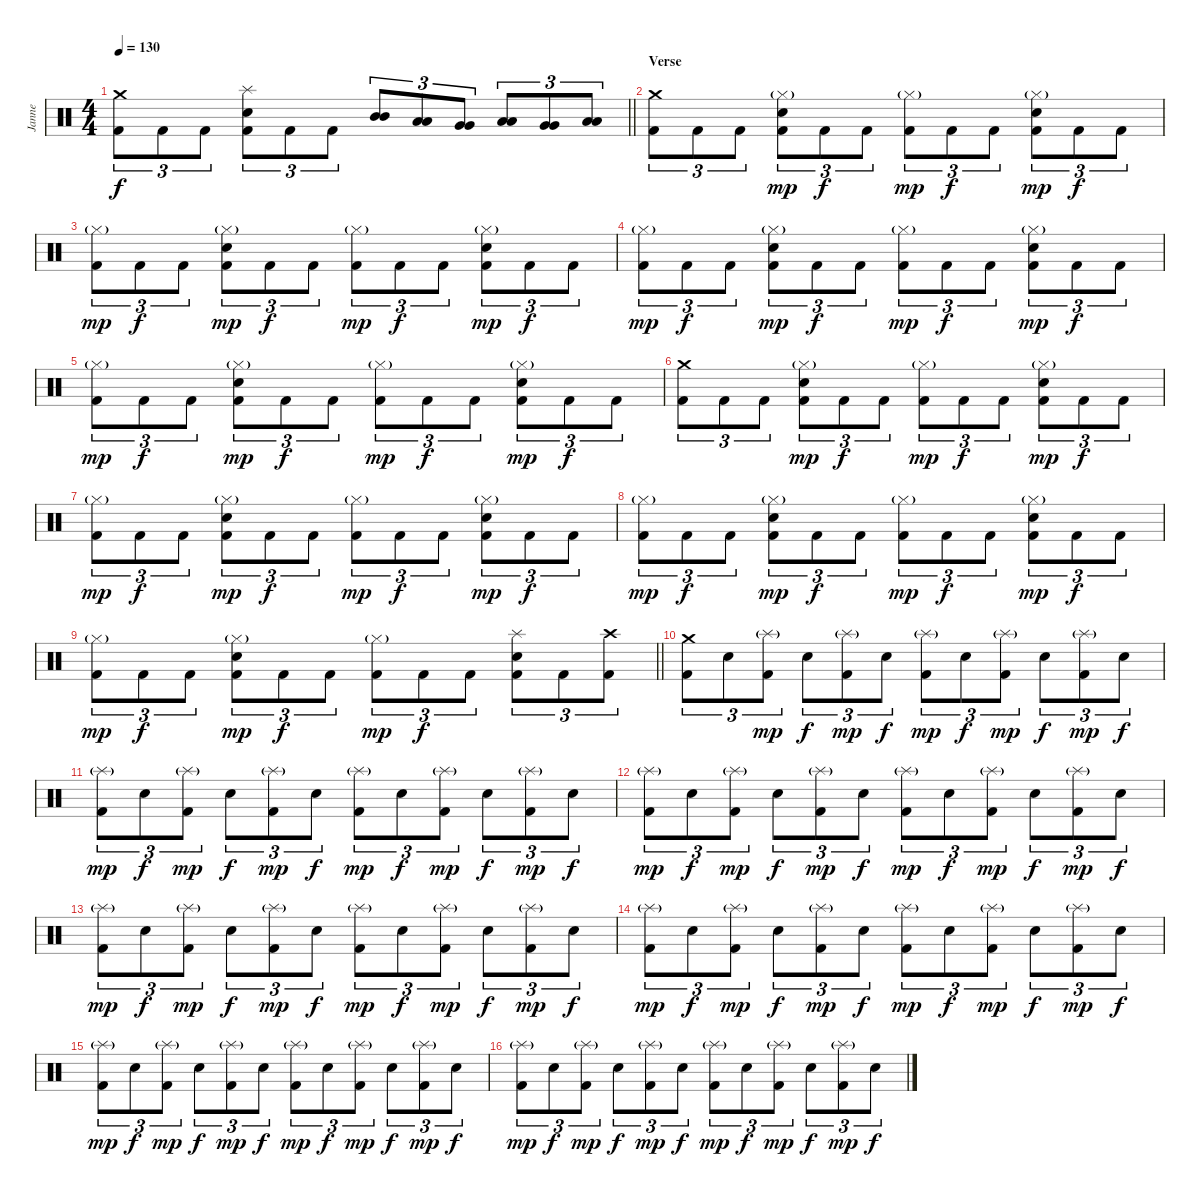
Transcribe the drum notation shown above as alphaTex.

\track ("Janne" "Janne") {instrument percussion}
\staff {score}
\articulation defaults
\ts (4 4)
\tempo 130
\clef neutral
\barLineRight lightlight
\ks c
("Kick (hit) 2" "Crash medium (hit)").8{tu (3 2) dy f} "Kick (hit) 2".8{tu (3 2)} "Kick (hit) 2".8{tu (3 2)} ("Kick (hit) 2" "Snare (hit) 2" "Splash (hit)").8{tu (3 2)} "Kick (hit) 2".8{tu (3 2)} "Kick (hit) 2".8{tu (3 2)} ("Mid Tom (hit)" "Mid Tom (hit)").8{tu (3 2)} ("Low Tom (hit)" "Low Tom (hit)").8{tu (3 2)} ("Very Low Tom (hit)" "Very Low Tom (hit)").8{tu (3 2)} ("Low Tom (hit)" "Low Tom (hit)").8{tu (3 2)} ("Very Low Tom (hit)" "Very Low Tom (hit)").8{tu (3 2)} ("Low Floor Tom (hit)" "Low Floor Tom (hit)").8{tu (3 2)} |
\section ("" "Verse")
("Kick (hit) 2" "Crash medium (hit)").8{tu (3 2)} "Kick (hit) 2".8{tu (3 2)} "Kick (hit) 2".8{tu (3 2)} ("Kick (hit) 2" "Snare (hit) 2" "Hi-Hat (closed)"{g}).8{tu (3 2) dy mp} "Kick (hit) 2".8{tu (3 2) dy f} "Kick (hit) 2".8{tu (3 2)} ("Kick (hit) 2" "Hi-Hat (closed)"{g}).8{tu (3 2) dy mp} "Kick (hit) 2".8{tu (3 2) dy f} "Kick (hit) 2".8{tu (3 2)} ("Kick (hit) 2" "Snare (hit) 2" "Hi-Hat (closed)"{g}).8{tu (3 2) dy mp} "Kick (hit) 2".8{tu (3 2) dy f} "Kick (hit) 2".8{tu (3 2)} |
("Kick (hit) 2" "Hi-Hat (closed)"{g}).8{tu (3 2) dy mp} "Kick (hit) 2".8{tu (3 2) dy f} "Kick (hit) 2".8{tu (3 2)} ("Kick (hit) 2" "Snare (hit) 2" "Hi-Hat (closed)"{g}).8{tu (3 2) dy mp} "Kick (hit) 2".8{tu (3 2) dy f} "Kick (hit) 2".8{tu (3 2)} ("Kick (hit) 2" "Hi-Hat (closed)"{g}).8{tu (3 2) dy mp} "Kick (hit) 2".8{tu (3 2) dy f} "Kick (hit) 2".8{tu (3 2)} ("Kick (hit) 2" "Snare (hit) 2" "Hi-Hat (closed)"{g}).8{tu (3 2) dy mp} "Kick (hit) 2".8{tu (3 2) dy f} "Kick (hit) 2".8{tu (3 2)} |
("Kick (hit) 2" "Hi-Hat (closed)"{g}).8{tu (3 2) dy mp} "Kick (hit) 2".8{tu (3 2) dy f} "Kick (hit) 2".8{tu (3 2)} ("Kick (hit) 2" "Snare (hit) 2" "Hi-Hat (closed)"{g}).8{tu (3 2) dy mp} "Kick (hit) 2".8{tu (3 2) dy f} "Kick (hit) 2".8{tu (3 2)} ("Kick (hit) 2" "Hi-Hat (closed)"{g}).8{tu (3 2) dy mp} "Kick (hit) 2".8{tu (3 2) dy f} "Kick (hit) 2".8{tu (3 2)} ("Kick (hit) 2" "Snare (hit) 2" "Hi-Hat (closed)"{g}).8{tu (3 2) dy mp} "Kick (hit) 2".8{tu (3 2) dy f} "Kick (hit) 2".8{tu (3 2)} |
("Kick (hit) 2" "Hi-Hat (closed)"{g}).8{tu (3 2) dy mp} "Kick (hit) 2".8{tu (3 2) dy f} "Kick (hit) 2".8{tu (3 2)} ("Kick (hit) 2" "Snare (hit) 2" "Hi-Hat (closed)"{g}).8{tu (3 2) dy mp} "Kick (hit) 2".8{tu (3 2) dy f} "Kick (hit) 2".8{tu (3 2)} ("Kick (hit) 2" "Hi-Hat (closed)"{g}).8{tu (3 2) dy mp} "Kick (hit) 2".8{tu (3 2) dy f} "Kick (hit) 2".8{tu (3 2)} ("Kick (hit) 2" "Snare (hit) 2" "Hi-Hat (closed)"{g}).8{tu (3 2) dy mp} "Kick (hit) 2".8{tu (3 2) dy f} "Kick (hit) 2".8{tu (3 2)} |
("Kick (hit) 2" "Crash medium (hit)").8{tu (3 2)} "Kick (hit) 2".8{tu (3 2)} "Kick (hit) 2".8{tu (3 2)} ("Kick (hit) 2" "Snare (hit) 2" "Hi-Hat (closed)"{g}).8{tu (3 2) dy mp} "Kick (hit) 2".8{tu (3 2) dy f} "Kick (hit) 2".8{tu (3 2)} ("Kick (hit) 2" "Hi-Hat (closed)"{g}).8{tu (3 2) dy mp} "Kick (hit) 2".8{tu (3 2) dy f} "Kick (hit) 2".8{tu (3 2)} ("Kick (hit) 2" "Snare (hit) 2" "Hi-Hat (closed)"{g}).8{tu (3 2) dy mp} "Kick (hit) 2".8{tu (3 2) dy f} "Kick (hit) 2".8{tu (3 2)} |
("Kick (hit) 2" "Hi-Hat (closed)"{g}).8{tu (3 2) dy mp} "Kick (hit) 2".8{tu (3 2) dy f} "Kick (hit) 2".8{tu (3 2)} ("Kick (hit) 2" "Snare (hit) 2" "Hi-Hat (closed)"{g}).8{tu (3 2) dy mp} "Kick (hit) 2".8{tu (3 2) dy f} "Kick (hit) 2".8{tu (3 2)} ("Kick (hit) 2" "Hi-Hat (closed)"{g}).8{tu (3 2) dy mp} "Kick (hit) 2".8{tu (3 2) dy f} "Kick (hit) 2".8{tu (3 2)} ("Kick (hit) 2" "Snare (hit) 2" "Hi-Hat (closed)"{g}).8{tu (3 2) dy mp} "Kick (hit) 2".8{tu (3 2) dy f} "Kick (hit) 2".8{tu (3 2)} |
("Kick (hit) 2" "Hi-Hat (closed)"{g}).8{tu (3 2) dy mp} "Kick (hit) 2".8{tu (3 2) dy f} "Kick (hit) 2".8{tu (3 2)} ("Kick (hit) 2" "Snare (hit) 2" "Hi-Hat (closed)"{g}).8{tu (3 2) dy mp} "Kick (hit) 2".8{tu (3 2) dy f} "Kick (hit) 2".8{tu (3 2)} ("Kick (hit) 2" "Hi-Hat (closed)"{g}).8{tu (3 2) dy mp} "Kick (hit) 2".8{tu (3 2) dy f} "Kick (hit) 2".8{tu (3 2)} ("Kick (hit) 2" "Snare (hit) 2" "Hi-Hat (closed)"{g}).8{tu (3 2) dy mp} "Kick (hit) 2".8{tu (3 2) dy f} "Kick (hit) 2".8{tu (3 2)} |
\barLineRight lightlight
("Kick (hit) 2" "Hi-Hat (closed)"{g}).8{tu (3 2) dy mp} "Kick (hit) 2".8{tu (3 2) dy f} "Kick (hit) 2".8{tu (3 2)} ("Kick (hit) 2" "Snare (hit) 2" "Hi-Hat (closed)"{g}).8{tu (3 2) dy mp} "Kick (hit) 2".8{tu (3 2) dy f} "Kick (hit) 2".8{tu (3 2)} ("Kick (hit) 2" "Hi-Hat (closed)"{g}).8{tu (3 2) dy mp} "Kick (hit) 2".8{tu (3 2) dy f} "Kick (hit) 2".8{tu (3 2)} ("Kick (hit) 2" "Snare (hit) 2" "Splash (hit)").8{tu (3 2)} "Kick (hit) 2".8{tu (3 2)} ("Kick (hit) 2" "Crash high (hit)").8{tu (3 2)} |
\section ("" "")
("Kick (hit) 2" "Crash medium (hit)").8{tu (3 2)} "Snare (hit) 2".8{tu (3 2)} ("Kick (hit) 2" "Splash (hit)"{g}).8{tu (3 2) dy mp} "Snare (hit) 2".8{tu (3 2) dy f} ("Kick (hit) 2" "Splash (hit)"{g}).8{tu (3 2) dy mp} "Snare (hit) 2".8{tu (3 2) dy f} ("Kick (hit) 2" "Splash (hit)"{g}).8{tu (3 2) dy mp} "Snare (hit) 2".8{tu (3 2) dy f} ("Kick (hit) 2" "Splash (hit)"{g}).8{tu (3 2) dy mp} "Snare (hit) 2".8{tu (3 2) dy f} ("Kick (hit) 2" "Splash (hit)"{g}).8{tu (3 2) dy mp} "Snare (hit) 2".8{tu (3 2) dy f} |
("Kick (hit) 2" "Splash (hit)"{g}).8{tu (3 2) dy mp} "Snare (hit) 2".8{tu (3 2) dy f} ("Kick (hit) 2" "Splash (hit)"{g}).8{tu (3 2) dy mp} "Snare (hit) 2".8{tu (3 2) dy f} ("Kick (hit) 2" "Splash (hit)"{g}).8{tu (3 2) dy mp} "Snare (hit) 2".8{tu (3 2) dy f} ("Kick (hit) 2" "Splash (hit)"{g}).8{tu (3 2) dy mp} "Snare (hit) 2".8{tu (3 2) dy f} ("Kick (hit) 2" "Splash (hit)"{g}).8{tu (3 2) dy mp} "Snare (hit) 2".8{tu (3 2) dy f} ("Kick (hit) 2" "Splash (hit)"{g}).8{tu (3 2) dy mp} "Snare (hit) 2".8{tu (3 2) dy f} |
("Kick (hit) 2" "Splash (hit)"{g}).8{tu (3 2) dy mp} "Snare (hit) 2".8{tu (3 2) dy f} ("Kick (hit) 2" "Splash (hit)"{g}).8{tu (3 2) dy mp} "Snare (hit) 2".8{tu (3 2) dy f} ("Kick (hit) 2" "Splash (hit)"{g}).8{tu (3 2) dy mp} "Snare (hit) 2".8{tu (3 2) dy f} ("Kick (hit) 2" "Splash (hit)"{g}).8{tu (3 2) dy mp} "Snare (hit) 2".8{tu (3 2) dy f} ("Kick (hit) 2" "Splash (hit)"{g}).8{tu (3 2) dy mp} "Snare (hit) 2".8{tu (3 2) dy f} ("Kick (hit) 2" "Splash (hit)"{g}).8{tu (3 2) dy mp} "Snare (hit) 2".8{tu (3 2) dy f} |
("Kick (hit) 2" "Splash (hit)"{g}).8{tu (3 2) dy mp} "Snare (hit) 2".8{tu (3 2) dy f} ("Kick (hit) 2" "Splash (hit)"{g}).8{tu (3 2) dy mp} "Snare (hit) 2".8{tu (3 2) dy f} ("Kick (hit) 2" "Splash (hit)"{g}).8{tu (3 2) dy mp} "Snare (hit) 2".8{tu (3 2) dy f} ("Kick (hit) 2" "Splash (hit)"{g}).8{tu (3 2) dy mp} "Snare (hit) 2".8{tu (3 2) dy f} ("Kick (hit) 2" "Splash (hit)"{g}).8{tu (3 2) dy mp} "Snare (hit) 2".8{tu (3 2) dy f} ("Kick (hit) 2" "Splash (hit)"{g}).8{tu (3 2) dy mp} "Snare (hit) 2".8{tu (3 2) dy f} |
("Kick (hit) 2" "Splash (hit)"{g}).8{tu (3 2) dy mp} "Snare (hit) 2".8{tu (3 2) dy f} ("Kick (hit) 2" "Splash (hit)"{g}).8{tu (3 2) dy mp} "Snare (hit) 2".8{tu (3 2) dy f} ("Kick (hit) 2" "Splash (hit)"{g}).8{tu (3 2) dy mp} "Snare (hit) 2".8{tu (3 2) dy f} ("Kick (hit) 2" "Splash (hit)"{g}).8{tu (3 2) dy mp} "Snare (hit) 2".8{tu (3 2) dy f} ("Kick (hit) 2" "Splash (hit)"{g}).8{tu (3 2) dy mp} "Snare (hit) 2".8{tu (3 2) dy f} ("Kick (hit) 2" "Splash (hit)"{g}).8{tu (3 2) dy mp} "Snare (hit) 2".8{tu (3 2) dy f} |
("Kick (hit) 2" "Splash (hit)"{g}).8{tu (3 2) dy mp} "Snare (hit) 2".8{tu (3 2) dy f} ("Kick (hit) 2" "Splash (hit)"{g}).8{tu (3 2) dy mp} "Snare (hit) 2".8{tu (3 2) dy f} ("Kick (hit) 2" "Splash (hit)"{g}).8{tu (3 2) dy mp} "Snare (hit) 2".8{tu (3 2) dy f} ("Kick (hit) 2" "Splash (hit)"{g}).8{tu (3 2) dy mp} "Snare (hit) 2".8{tu (3 2) dy f} ("Kick (hit) 2" "Splash (hit)"{g}).8{tu (3 2) dy mp} "Snare (hit) 2".8{tu (3 2) dy f} ("Kick (hit) 2" "Splash (hit)"{g}).8{tu (3 2) dy mp} "Snare (hit) 2".8{tu (3 2) dy f} |
("Kick (hit) 2" "Splash (hit)"{g}).8{tu (3 2) dy mp} "Snare (hit) 2".8{tu (3 2) dy f} ("Kick (hit) 2" "Splash (hit)"{g}).8{tu (3 2) dy mp} "Snare (hit) 2".8{tu (3 2) dy f} ("Kick (hit) 2" "Splash (hit)"{g}).8{tu (3 2) dy mp} "Snare (hit) 2".8{tu (3 2) dy f} ("Kick (hit) 2" "Splash (hit)"{g}).8{tu (3 2) dy mp} "Snare (hit) 2".8{tu (3 2) dy f} ("Kick (hit) 2" "Splash (hit)"{g}).8{tu (3 2) dy mp} "Snare (hit) 2".8{tu (3 2) dy f} ("Kick (hit) 2" "Splash (hit)"{g}).8{tu (3 2) dy mp} "Snare (hit) 2".8{tu (3 2) dy f}
